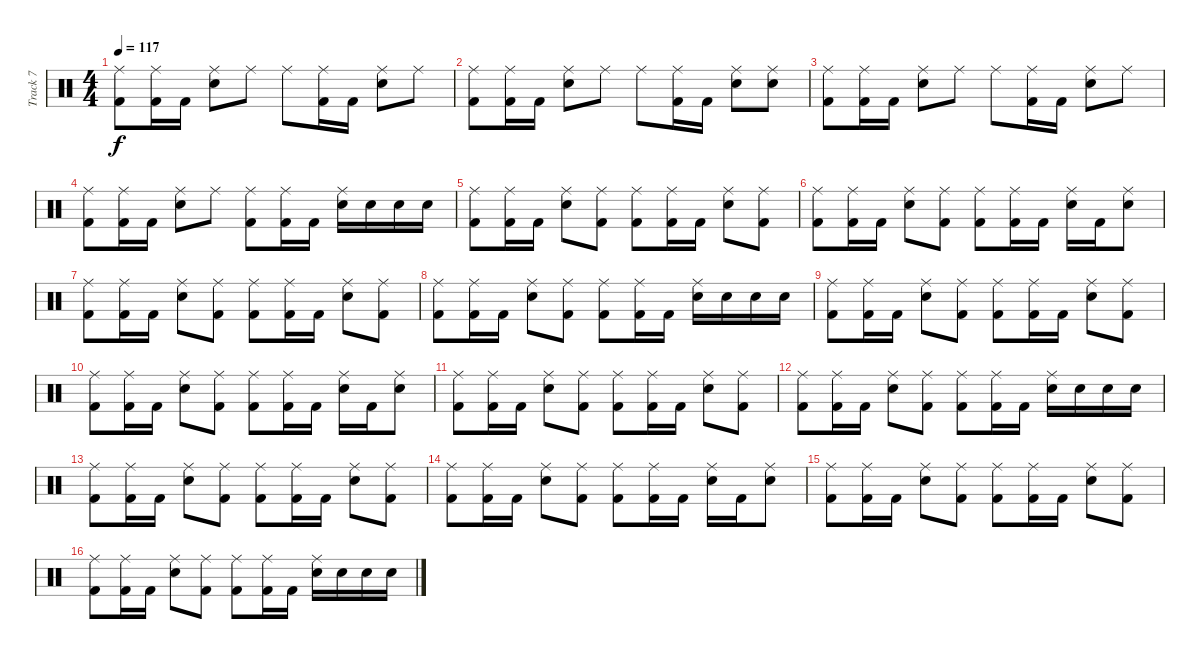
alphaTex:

\track ("Track 7" "Track 7") {instrument percussion}
\staff {score}
\articulation defaults
\ts (4 4)
\tempo 117
\clef neutral
\ks c
("Ride (middle)" "Kick (hit) 2").8{dy f} ("Ride (middle)" "Kick (hit) 2").16 "Kick (hit) 2".16 ("Ride (middle)" "Snare (hit) 2").8 "Ride (middle)".8 "Ride (middle)".8 ("Ride (middle)" "Kick (hit) 2").16 "Kick (hit) 2".16 ("Ride (middle)" "Snare (hit) 2").8 "Ride (middle)".8 |
("Ride (middle)" "Kick (hit) 2").8 ("Ride (middle)" "Kick (hit) 2").16 "Kick (hit) 2".16 ("Ride (middle)" "Snare (hit) 2").8 "Ride (middle)".8 "Ride (middle)".8 ("Ride (middle)" "Kick (hit) 2").16 "Kick (hit) 2".16 ("Ride (middle)" "Snare (hit) 2").8 ("Ride (middle)" "Snare (hit) 2").8 |
("Ride (middle)" "Kick (hit) 2").8 ("Ride (middle)" "Kick (hit) 2").16 "Kick (hit) 2".16 ("Ride (middle)" "Snare (hit) 2").8 "Ride (middle)".8 "Ride (middle)".8 ("Ride (middle)" "Kick (hit) 2").16 "Kick (hit) 2".16 ("Ride (middle)" "Snare (hit) 2").8 "Ride (middle)".8 |
("Ride (middle)" "Kick (hit) 2").8 ("Ride (middle)" "Kick (hit) 2").16 "Kick (hit) 2".16 ("Ride (middle)" "Snare (hit) 2").8 "Ride (middle)".8 ("Ride (middle)" "Kick (hit) 2").8 ("Ride (middle)" "Kick (hit) 2").16 "Kick (hit) 2".16 ("Ride (middle)" "Snare (hit) 2").16 "Snare (hit) 2".16 "Snare (hit) 2".16 "Snare (hit) 2".16 |
("Ride (middle)" "Kick (hit) 2").8 ("Ride (middle)" "Kick (hit) 2").16 "Kick (hit) 2".16 ("Ride (middle)" "Snare (hit) 2").8 ("Ride (middle)" "Kick (hit) 2").8 ("Ride (middle)" "Kick (hit) 2").8 ("Ride (middle)" "Kick (hit) 2").16 "Kick (hit) 2".16 ("Ride (middle)" "Snare (hit) 2").8 ("Ride (middle)" "Kick (hit) 2").8 |
("Ride (middle)" "Kick (hit) 2").8 ("Ride (middle)" "Kick (hit) 2").16 "Kick (hit) 2".16 ("Ride (middle)" "Snare (hit) 2").8 ("Ride (middle)" "Kick (hit) 2").8 ("Ride (middle)" "Kick (hit) 2").8 ("Ride (middle)" "Kick (hit) 2").16 "Kick (hit) 2".16 ("Ride (middle)" "Snare (hit) 2").16 "Kick (hit) 2".16 ("Ride (middle)" "Snare (hit) 2").8 |
("Ride (middle)" "Kick (hit) 2").8 ("Ride (middle)" "Kick (hit) 2").16 "Kick (hit) 2".16 ("Ride (middle)" "Snare (hit) 2").8 ("Ride (middle)" "Kick (hit) 2").8 ("Ride (middle)" "Kick (hit) 2").8 ("Ride (middle)" "Kick (hit) 2").16 "Kick (hit) 2".16 ("Ride (middle)" "Snare (hit) 2").8 ("Ride (middle)" "Kick (hit) 2").8 |
("Ride (middle)" "Kick (hit) 2").8 ("Ride (middle)" "Kick (hit) 2").16 "Kick (hit) 2".16 ("Ride (middle)" "Snare (hit) 2").8 ("Ride (middle)" "Kick (hit) 2").8 ("Ride (middle)" "Kick (hit) 2").8 ("Ride (middle)" "Kick (hit) 2").16 "Kick (hit) 2".16 ("Ride (middle)" "Snare (hit) 2").16 "Snare (hit) 2".16 "Snare (hit) 2".16 "Snare (hit) 2".16 |
("Ride (middle)" "Kick (hit) 2").8 ("Ride (middle)" "Kick (hit) 2").16 "Kick (hit) 2".16 ("Ride (middle)" "Snare (hit) 2").8 ("Ride (middle)" "Kick (hit) 2").8 ("Ride (middle)" "Kick (hit) 2").8 ("Ride (middle)" "Kick (hit) 2").16 "Kick (hit) 2".16 ("Ride (middle)" "Snare (hit) 2").8 ("Ride (middle)" "Kick (hit) 2").8 |
("Ride (middle)" "Kick (hit) 2").8 ("Ride (middle)" "Kick (hit) 2").16 "Kick (hit) 2".16 ("Ride (middle)" "Snare (hit) 2").8 ("Ride (middle)" "Kick (hit) 2").8 ("Ride (middle)" "Kick (hit) 2").8 ("Ride (middle)" "Kick (hit) 2").16 "Kick (hit) 2".16 ("Ride (middle)" "Snare (hit) 2").16 "Kick (hit) 2".16 ("Ride (middle)" "Snare (hit) 2").8 |
("Ride (middle)" "Kick (hit) 2").8 ("Ride (middle)" "Kick (hit) 2").16 "Kick (hit) 2".16 ("Ride (middle)" "Snare (hit) 2").8 ("Ride (middle)" "Kick (hit) 2").8 ("Ride (middle)" "Kick (hit) 2").8 ("Ride (middle)" "Kick (hit) 2").16 "Kick (hit) 2".16 ("Ride (middle)" "Snare (hit) 2").8 ("Ride (middle)" "Kick (hit) 2").8 |
("Ride (middle)" "Kick (hit) 2").8 ("Ride (middle)" "Kick (hit) 2").16 "Kick (hit) 2".16 ("Ride (middle)" "Snare (hit) 2").8 ("Ride (middle)" "Kick (hit) 2").8 ("Ride (middle)" "Kick (hit) 2").8 ("Ride (middle)" "Kick (hit) 2").16 "Kick (hit) 2".16 ("Ride (middle)" "Snare (hit) 2").16 "Snare (hit) 2".16 "Snare (hit) 2".16 "Snare (hit) 2".16 |
("Ride (middle)" "Kick (hit) 2").8 ("Ride (middle)" "Kick (hit) 2").16 "Kick (hit) 2".16 ("Ride (middle)" "Snare (hit) 2").8 ("Ride (middle)" "Kick (hit) 2").8 ("Ride (middle)" "Kick (hit) 2").8 ("Ride (middle)" "Kick (hit) 2").16 "Kick (hit) 2".16 ("Ride (middle)" "Snare (hit) 2").8 ("Ride (middle)" "Kick (hit) 2").8 |
("Ride (middle)" "Kick (hit) 2").8 ("Ride (middle)" "Kick (hit) 2").16 "Kick (hit) 2".16 ("Ride (middle)" "Snare (hit) 2").8 ("Ride (middle)" "Kick (hit) 2").8 ("Ride (middle)" "Kick (hit) 2").8 ("Ride (middle)" "Kick (hit) 2").16 "Kick (hit) 2".16 ("Ride (middle)" "Snare (hit) 2").16 "Kick (hit) 2".16 ("Ride (middle)" "Snare (hit) 2").8 |
("Ride (middle)" "Kick (hit) 2").8 ("Ride (middle)" "Kick (hit) 2").16 "Kick (hit) 2".16 ("Ride (middle)" "Snare (hit) 2").8 ("Ride (middle)" "Kick (hit) 2").8 ("Ride (middle)" "Kick (hit) 2").8 ("Ride (middle)" "Kick (hit) 2").16 "Kick (hit) 2".16 ("Ride (middle)" "Snare (hit) 2").8 ("Ride (middle)" "Kick (hit) 2").8 |
("Ride (middle)" "Kick (hit) 2").8 ("Ride (middle)" "Kick (hit) 2").16 "Kick (hit) 2".16 ("Ride (middle)" "Snare (hit) 2").8 ("Ride (middle)" "Kick (hit) 2").8 ("Ride (middle)" "Kick (hit) 2").8 ("Ride (middle)" "Kick (hit) 2").16 "Kick (hit) 2".16 ("Ride (middle)" "Snare (hit) 2").16 "Snare (hit) 2".16 "Snare (hit) 2".16 "Snare (hit) 2".16
